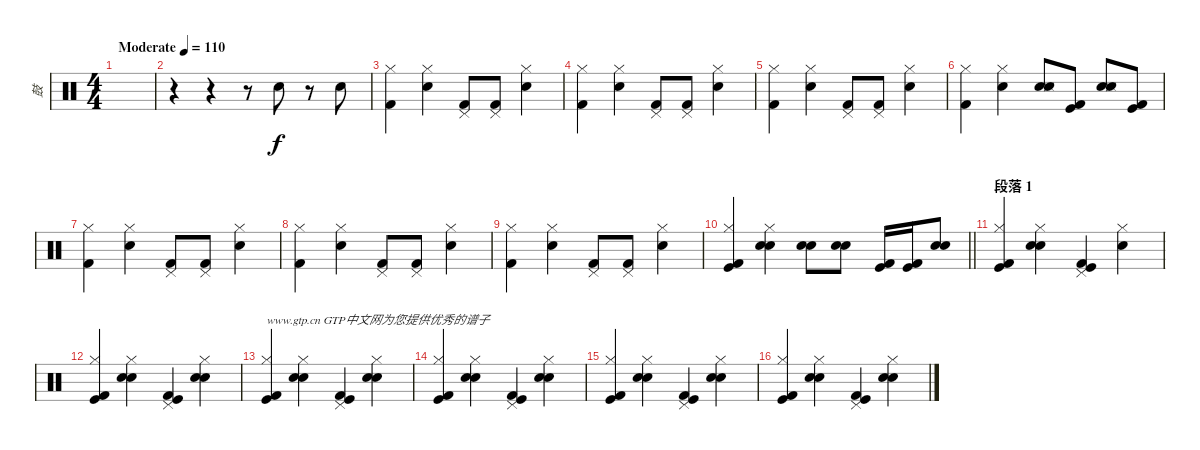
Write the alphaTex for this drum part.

\track ("鼓" "鼓") {instrument percussion}
\staff {score}
\articulation defaults
\ts (4 4)
\tempo (110 "Moderate")
\clef neutral
\ks c
|
r.4 r.4 r.8 "Electric Snare (hit)".8 r.8 "Electric Snare (hit)".8 |
("Kick (hit) 2" "Hi-Hat (closed)").4 ("Snare (hit) 2" "Hi-Hat (closed)").4 ("Kick (hit) 2" "Pedal Hi-Hat (hit)").8 ("Kick (hit) 2" "Pedal Hi-Hat (hit)").8 ("Snare (hit) 2" "Hi-Hat (closed)").4 |
("Kick (hit) 2" "Hi-Hat (closed)").4 ("Snare (hit) 2" "Hi-Hat (closed)").4 ("Kick (hit) 2" "Pedal Hi-Hat (hit)").8 ("Kick (hit) 2" "Pedal Hi-Hat (hit)").8 ("Snare (hit) 2" "Hi-Hat (closed)").4 |
("Kick (hit) 2" "Hi-Hat (closed)").4 ("Snare (hit) 2" "Hi-Hat (closed)").4 ("Kick (hit) 2" "Pedal Hi-Hat (hit)").8 ("Kick (hit) 2" "Pedal Hi-Hat (hit)").8 ("Snare (hit) 2" "Hi-Hat (closed)").4 |
("Kick (hit) 2" "Hi-Hat (closed)").4 ("Snare (hit) 2" "Hi-Hat (closed)").4 ("Snare (hit) 2" "Electric Snare (hit)" "Snare (side stick) 3").8 ("Kick (hit) 2" "Kick (hit)").8 ("Snare (hit) 2" "Electric Snare (hit)" "Snare (side stick) 3").8 ("Kick (hit) 2" "Kick (hit)").8 |
("Kick (hit) 2" "Hi-Hat (closed)").4 ("Snare (hit) 2" "Hi-Hat (closed)").4 ("Kick (hit) 2" "Pedal Hi-Hat (hit)").8 ("Kick (hit) 2" "Pedal Hi-Hat (hit)").8 ("Snare (hit) 2" "Hi-Hat (closed)").4 |
("Kick (hit) 2" "Hi-Hat (closed)").4 ("Snare (hit) 2" "Hi-Hat (closed)").4 ("Kick (hit) 2" "Pedal Hi-Hat (hit)").8 ("Kick (hit) 2" "Pedal Hi-Hat (hit)").8 ("Snare (hit) 2" "Hi-Hat (closed)").4 |
("Kick (hit) 2" "Hi-Hat (closed)").4 ("Snare (hit) 2" "Hi-Hat (closed)").4 ("Kick (hit) 2" "Pedal Hi-Hat (hit)").8 ("Kick (hit) 2" "Pedal Hi-Hat (hit)").8 ("Snare (hit) 2" "Hi-Hat (closed)").4 |
\barLineRight lightlight
("Kick (hit) 2" "Kick (hit)" "Hi-Hat (closed)").4 ("Electric Snare (hit)" "Snare (hit) 2" "Hi-Hat (closed)").4 ("Electric Snare (hit)" "Snare (hit) 2").8 ("Electric Snare (hit)" "Snare (hit) 2").8 ("Kick (hit)" "Kick (hit) 2").16 ("Kick (hit)" "Kick (hit) 2").16 ("Electric Snare (hit)" "Snare (hit) 2").8 |
\section ("" "段落 1")
("Kick (hit) 2" "Kick (hit)" "Hi-Hat (closed)").4 ("Electric Snare (hit)" "Snare (hit) 2" "Hi-Hat (closed)").4 ("Kick (hit) 2" "Kick (hit)" "Pedal Hi-Hat (hit)").4 ("Snare (hit) 2" "Hi-Hat (closed)").4 |
("Kick (hit) 2" "Kick (hit)" "Hi-Hat (closed)").4 ("Electric Snare (hit)" "Snare (hit) 2" "Hi-Hat (closed)").4 ("Kick (hit) 2" "Kick (hit)" "Pedal Hi-Hat (hit)").4 ("Electric Snare (hit)" "Snare (hit) 2" "Hi-Hat (closed)").4 |
("Kick (hit) 2" "Kick (hit)" "Hi-Hat (closed)").4{txt "www.gtp.cn GTP中文网为您提供优秀的谱子"} ("Electric Snare (hit)" "Snare (hit) 2" "Hi-Hat (closed)").4 ("Kick (hit) 2" "Kick (hit)" "Pedal Hi-Hat (hit)").4 ("Electric Snare (hit)" "Snare (hit) 2" "Hi-Hat (closed)").4 |
("Kick (hit) 2" "Kick (hit)" "Hi-Hat (closed)").4 ("Electric Snare (hit)" "Snare (hit) 2" "Hi-Hat (closed)").4 ("Kick (hit) 2" "Kick (hit)" "Pedal Hi-Hat (hit)").4 ("Electric Snare (hit)" "Snare (hit) 2" "Hi-Hat (closed)").4 |
("Kick (hit) 2" "Kick (hit)" "Hi-Hat (closed)").4 ("Electric Snare (hit)" "Snare (hit) 2" "Hi-Hat (closed)").4 ("Kick (hit) 2" "Kick (hit)" "Pedal Hi-Hat (hit)").4 ("Electric Snare (hit)" "Snare (hit) 2" "Hi-Hat (closed)").4 |
("Kick (hit) 2" "Kick (hit)" "Hi-Hat (closed)").4 ("Electric Snare (hit)" "Snare (hit) 2" "Hi-Hat (closed)").4 ("Kick (hit) 2" "Kick (hit)" "Pedal Hi-Hat (hit)").4 ("Electric Snare (hit)" "Snare (hit) 2" "Hi-Hat (closed)").4
